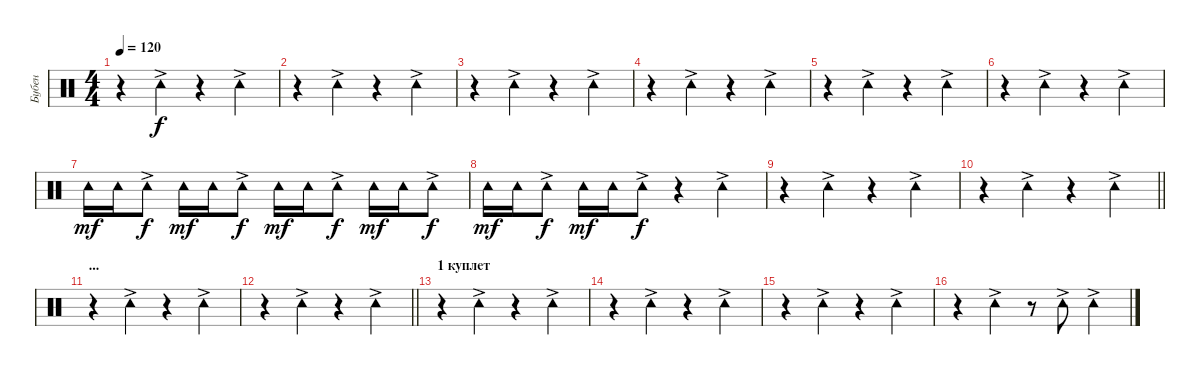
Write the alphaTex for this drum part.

\track ("Бубен" "Бубен") {instrument percussion}
\staff {score}
\articulation defaults
\ts (4 4)
\tempo 120
\clef neutral
\ks c
r.4{dy f} "Tambourine (hit)"{ac}.4 r.4 "Tambourine (hit)"{ac}.4 |
r.4 "Tambourine (hit)"{ac}.4 r.4 "Tambourine (hit)"{ac}.4 |
r.4 "Tambourine (hit)"{ac}.4 r.4 "Tambourine (hit)"{ac}.4 |
r.4 "Tambourine (hit)"{ac}.4 r.4 "Tambourine (hit)"{ac}.4 |
r.4 "Tambourine (hit)"{ac}.4 r.4 "Tambourine (hit)"{ac}.4 |
r.4 "Tambourine (hit)"{ac}.4 r.4 "Tambourine (hit)"{ac}.4 |
"Tambourine (hit)".16{dy mf} "Tambourine (hit)".16 "Tambourine (hit)"{ac}.8{dy f} "Tambourine (hit)".16{dy mf} "Tambourine (hit)".16 "Tambourine (hit)"{ac}.8{dy f} "Tambourine (hit)".16{dy mf} "Tambourine (hit)".16 "Tambourine (hit)"{ac}.8{dy f} "Tambourine (hit)".16{dy mf} "Tambourine (hit)".16 "Tambourine (hit)"{ac}.8{dy f} |
"Tambourine (hit)".16{dy mf} "Tambourine (hit)".16 "Tambourine (hit)"{ac}.8{dy f} "Tambourine (hit)".16{dy mf} "Tambourine (hit)".16 "Tambourine (hit)"{ac}.8{dy f} r.4 "Tambourine (hit)"{ac}.4 |
r.4 "Tambourine (hit)"{ac}.4 r.4 "Tambourine (hit)"{ac}.4 |
\barLineRight lightlight
r.4 "Tambourine (hit)"{ac}.4 r.4 "Tambourine (hit)"{ac}.4 |
\section ("" "...")
r.4 "Tambourine (hit)"{ac}.4 r.4 "Tambourine (hit)"{ac}.4 |
\barLineRight lightlight
r.4 "Tambourine (hit)"{ac}.4 r.4 "Tambourine (hit)"{ac}.4 |
\section ("" "1 куплет")
r.4 "Tambourine (hit)"{ac}.4 r.4 "Tambourine (hit)"{ac}.4 |
r.4 "Tambourine (hit)"{ac}.4 r.4 "Tambourine (hit)"{ac}.4 |
r.4 "Tambourine (hit)"{ac}.4 r.4 "Tambourine (hit)"{ac}.4 |
r.4 "Tambourine (hit)"{ac}.4 r.8 "Tambourine (hit)"{ac}.8 "Tambourine (hit)"{ac}.4
